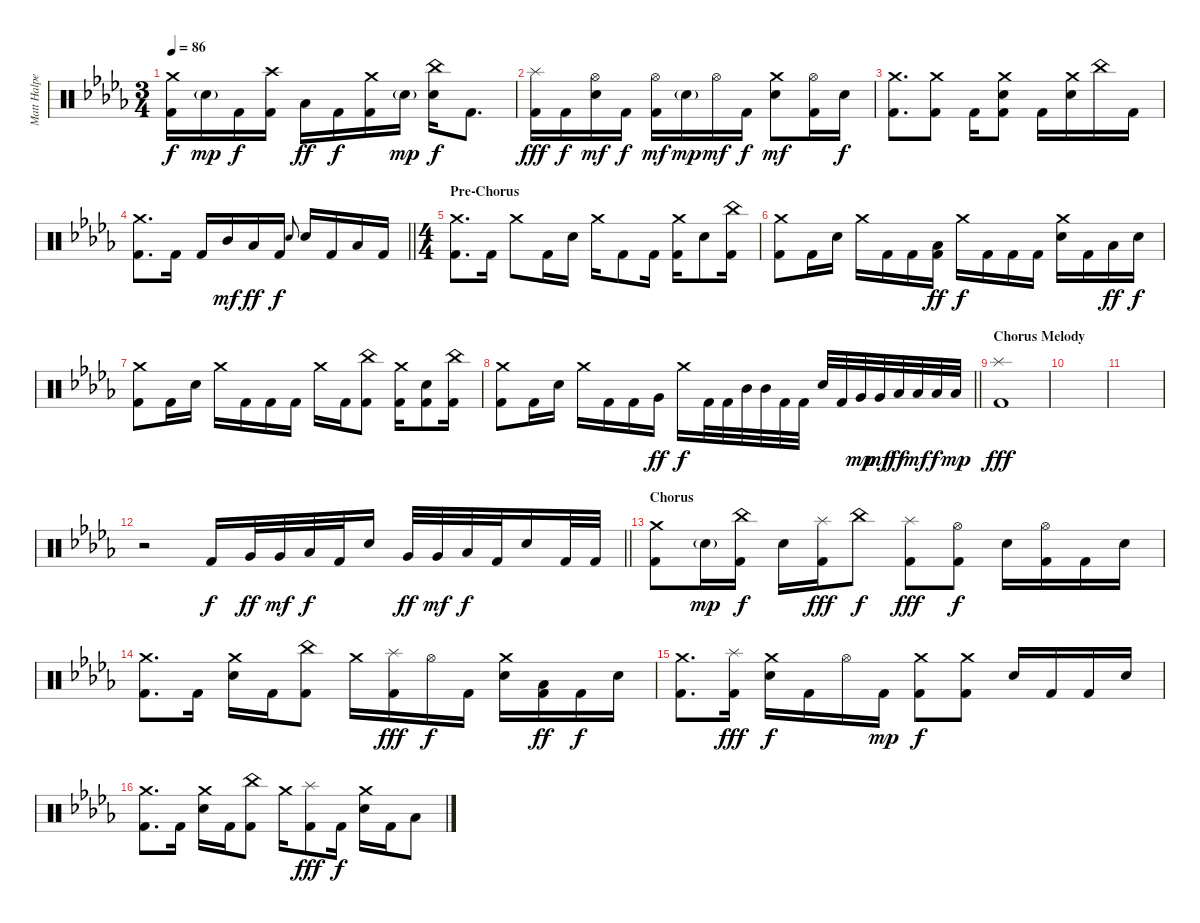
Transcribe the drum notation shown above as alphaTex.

\track ("Matt Halpern - Drums" "Matt Halpe") {instrument percussion}
\staff {score}
\articulation defaults
\ts (3 4)
\tempo 86
\clef neutral
\ks bbminor
("Crash medium (hit)" "Kick (hit) 2").16{dy f} "Snare (hit) 2"{g}.16{dy mp} "Kick (hit) 2".16{dy f} ("Crash high (hit)" "Kick (hit) 2").16 "Low Floor Tom (hit)".16{dy ff} "Kick (hit) 2".16{dy f} ("Crash medium (hit)" "Kick (hit) 2").16 "Snare (hit) 2"{g}.16{dy mp} ("China (hit)" "Snare (hit) 2").16{dy f} "Kick (hit) 2".8{d} |
("Splash (hit)" "Kick (hit) 2").16{dy fff} "Kick (hit) 2".16{dy f} ("Hi-Hat (open)" "Snare (hit) 2").16{dy mf} "Kick (hit) 2".16{dy f} ("Hi-Hat (open)" "Kick (hit) 2").16{dy mf} "Snare (hit) 2"{g}.16{dy mp} "Hi-Hat (open)".16{dy mf} "Kick (hit) 2".16{dy f} ("Crash medium (hit)" "Snare (hit) 2").8{dy mf} ("Hi-Hat (open)" "Kick (hit) 2").16 "Snare (hit) 2".16{dy f} |
("Crash medium (hit)" "Kick (hit) 2").8{d} ("Crash medium (hit)" "Kick (hit) 2").8 "Kick (hit) 2".16 ("Crash medium (hit)" "Snare (hit) 2" "Kick (hit) 2").8 "Kick (hit) 2".16 ("Crash medium (hit)" "Snare (hit) 2").16 "China (hit)".16 "Kick (hit) 2".16 |
\barLineRight lightlight
("Crash medium (hit)" "Kick (hit) 2").8{d} "Kick (hit) 2".16 "Kick (hit) 2".16 "Mid Tom (hit)".16{dy mf} "Low Floor Tom (hit)".16{dy ff} "Kick (hit) 2".16{dy f} "Snare (hit) 2".8{gr onbeat} "Snare (hit) 2".16 "Kick (hit) 2".16 "Low Floor Tom (hit)".16 "Kick (hit) 2".16 |
\ts (4 4)
\section ("" "Pre-Chorus")
("Crash medium (hit)" "Kick (hit) 2").8{d} "Kick (hit) 2".16 "Crash medium (hit)".8 "Kick (hit) 2".16 "Snare (hit) 2".16 "Crash medium (hit)".16 "Kick (hit) 2".8 "Kick (hit) 2".16 ("Crash medium (hit)" "Kick (hit) 2").16 "Snare (hit) 2".8 ("China (hit)" "Kick (hit) 2").16 |
("Crash medium (hit)" "Kick (hit) 2").8 "Kick (hit) 2".16 "Snare (hit) 2".16 "Crash medium (hit)".16 "Kick (hit) 2".16 "Kick (hit) 2".16 ("Low Floor Tom (hit)" "Kick (hit) 2").16{dy ff} "Crash medium (hit)".16{dy f} "Kick (hit) 2".16 "Kick (hit) 2".16 "Kick (hit) 2".16 ("Crash medium (hit)" "Snare (hit) 2").16 "Kick (hit) 2".16 "Low Floor Tom (hit)".16{dy ff} "Snare (hit) 2".16{dy f} |
("Crash medium (hit)" "Kick (hit) 2").8 "Kick (hit) 2".16 "Snare (hit) 2".16 "Crash medium (hit)".16 "Kick (hit) 2".16 "Kick (hit) 2".16 "Kick (hit) 2".16 "Crash medium (hit)".16 "Kick (hit) 2".16 ("China (hit)" "Kick (hit) 2").8 ("Crash medium (hit)" "Kick (hit) 2").16 ("Snare (hit) 2" "Kick (hit) 2").8 ("China (hit)" "Kick (hit) 2").16 |
\barLineRight lightlight
("Crash medium (hit)" "Kick (hit) 2").8 "Kick (hit) 2".16 "Snare (hit) 2".16 "Crash medium (hit)".16 "Kick (hit) 2".16 "Kick (hit) 2".16 "Very Low Tom (hit)".16{dy ff} "Crash medium (hit)".16{dy f} "Kick (hit) 2".32 "Kick (hit) 2".32 "Mid Tom (hit)".32 "Mid Tom (hit)".32 "Kick (hit) 2".32 "Kick (hit) 2".32 "Snare (hit) 2".32 "Kick (hit) 2".32 "Very Low Tom (hit)".32{dy mp} "Very Low Tom (hit)".32{dy mf} "Low Tom (hit)".32{dy ff} "Low Tom (hit)".32{dy mf} "Low Floor Tom (hit)".32{dy f} "Low Floor Tom (hit)".32{dy mp} |
\section ("" "Chorus Melody")
("Splash (hit)" "Kick (hit) 2").1{dy fff} |
|
|
\barLineRight lightlight
r.2 "Kick (hit) 2".16{dy f} "Very Low Tom (hit)".32{dy ff} "Very Low Tom (hit)".32{dy mf} "Low Floor Tom (hit)".32{dy f} "Kick (hit) 2".32 "Snare (hit) 2".16 "Very Low Tom (hit)".32{dy ff} "Very Low Tom (hit)".32{dy mf} "Low Floor Tom (hit)".32{dy f} "Kick (hit) 2".32 "Snare (hit) 2".16 "Kick (hit) 2".32 "Kick (hit) 2".32 |
\section ("" "Chorus")
("Crash medium (hit)" "Kick (hit) 2").8 "Snare (hit) 2"{g}.16{dy mp} ("China (hit)" "Kick (hit) 2").16{dy f} "Snare (hit) 2".16 ("Splash (hit)" "Kick (hit) 2").16{dy fff} "China (hit)".8{dy f} ("Splash (hit)" "Kick (hit) 2").8{dy fff} ("Hi-Hat (open)" "Kick (hit) 2").8{dy f} "Snare (hit) 2".16 ("Hi-Hat (open)" "Kick (hit) 2").16 "Kick (hit) 2".16 "Snare (hit) 2".16 |
("Crash medium (hit)" "Kick (hit) 2").8{d} "Kick (hit) 2".16 ("Crash medium (hit)" "Snare (hit) 2").16 "Kick (hit) 2".16 ("China (hit)" "Kick (hit) 2").8 "Crash medium (hit)".16 ("Splash (hit)" "Kick (hit) 2").16{dy fff} "Hi-Hat (open)".16{dy f} "Kick (hit) 2".16 ("Crash medium (hit)" "Snare (hit) 2").16 ("Low Floor Tom (hit)" "Kick (hit) 2").16{dy ff} "Kick (hit) 2".16{dy f} "Snare (hit) 2".16 |
("Crash medium (hit)" "Kick (hit) 2").8{d} ("Splash (hit)" "Kick (hit) 2").16{dy fff} ("Crash medium (hit)" "Snare (hit) 2").16{dy f} "Kick (hit) 2".16 "Hi-Hat (open)".16 "Kick (hit) 2".16{dy mp} ("Crash medium (hit)" "Kick (hit) 2").8{dy f} ("Crash medium (hit)" "Kick (hit) 2").8 "Snare (hit) 2".16 "Kick (hit) 2".16 "Kick (hit) 2".16 "Snare (hit) 2".16 |
("Crash medium (hit)" "Kick (hit) 2").8{d} "Kick (hit) 2".16 ("Crash medium (hit)" "Snare (hit) 2").16 "Kick (hit) 2".16 ("China (hit)" "Kick (hit) 2").8 "Crash medium (hit)".16 ("Splash (hit)" "Kick (hit) 2").8{dy fff} "Kick (hit) 2".16{dy f} ("Crash medium (hit)" "Snare (hit) 2").16 "Kick (hit) 2".16 "Low Floor Tom (hit)".8
